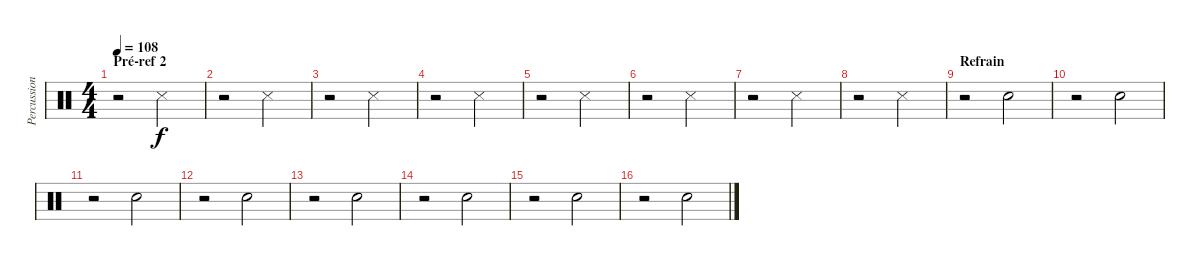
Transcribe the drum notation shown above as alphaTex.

\track ("Percussions (Porcaro J.)" "Percussion") {instrument percussion}
\staff {score}
\articulation defaults
\ts (4 4)
\section ("" "Pré-ref 2")
\tempo 108
\clef neutral
\ks c
r.2{dy f} "Snare (side stick) 3".2 |
r.2 "Snare (side stick) 3".2 |
r.2 "Snare (side stick) 3".2 |
r.2 "Snare (side stick) 3".2 |
r.2 "Snare (side stick) 3".2 |
r.2 "Snare (side stick) 3".2 |
r.2 "Snare (side stick) 3".2 |
r.2 "Snare (side stick) 3".2 |
\section ("" "Refrain")
r.2 "Snare (hit) 2".2 |
r.2 "Snare (hit) 2".2 |
r.2 "Snare (hit) 2".2 |
r.2 "Snare (hit) 2".2 |
r.2 "Snare (hit) 2".2 |
r.2 "Snare (hit) 2".2 |
r.2 "Snare (hit) 2".2 |
r.2 "Snare (hit) 2".2
